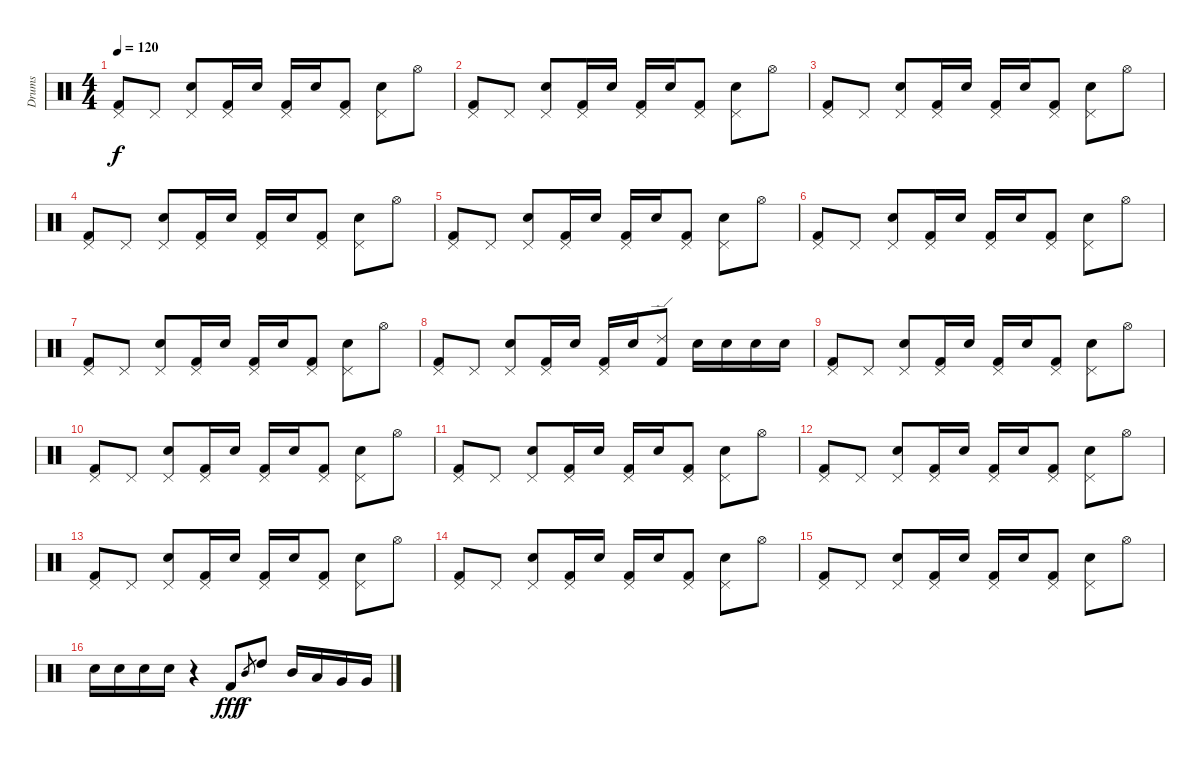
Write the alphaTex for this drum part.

\track ("Drums" "Drums") {instrument percussion}
\staff {score}
\articulation defaults
\ts (4 4)
\tempo 120
\clef neutral
\ks c
("Pedal Hi-Hat (hit)" "Kick (hit) 2").8{dy f} "Pedal Hi-Hat (hit)".8 ("Pedal Hi-Hat (hit)" "Electric Snare (hit)").8 ("Pedal Hi-Hat (hit)" "Kick (hit) 2").16 "Electric Snare (hit)".16 ("Pedal Hi-Hat (hit)" "Kick (hit) 2").16 "Electric Snare (hit)".16 ("Pedal Hi-Hat (hit)" "Kick (hit) 2").8 ("Pedal Hi-Hat (hit)" "Electric Snare (hit)").8 "Hi-Hat (open)".8 |
("Pedal Hi-Hat (hit)" "Kick (hit) 2").8 "Pedal Hi-Hat (hit)".8 ("Pedal Hi-Hat (hit)" "Electric Snare (hit)").8 ("Pedal Hi-Hat (hit)" "Kick (hit) 2").16 "Electric Snare (hit)".16 ("Pedal Hi-Hat (hit)" "Kick (hit) 2").16 "Electric Snare (hit)".16 ("Pedal Hi-Hat (hit)" "Kick (hit) 2").8 ("Pedal Hi-Hat (hit)" "Electric Snare (hit)").8 "Hi-Hat (open)".8 |
("Pedal Hi-Hat (hit)" "Kick (hit) 2").8 "Pedal Hi-Hat (hit)".8 ("Pedal Hi-Hat (hit)" "Electric Snare (hit)").8 ("Pedal Hi-Hat (hit)" "Kick (hit) 2").16 "Electric Snare (hit)".16 ("Pedal Hi-Hat (hit)" "Kick (hit) 2").16 "Electric Snare (hit)".16 ("Pedal Hi-Hat (hit)" "Kick (hit) 2").8 ("Pedal Hi-Hat (hit)" "Electric Snare (hit)").8 "Hi-Hat (open)".8 |
("Pedal Hi-Hat (hit)" "Kick (hit) 2").8 "Pedal Hi-Hat (hit)".8 ("Pedal Hi-Hat (hit)" "Electric Snare (hit)").8 ("Pedal Hi-Hat (hit)" "Kick (hit) 2").16 "Electric Snare (hit)".16 ("Pedal Hi-Hat (hit)" "Kick (hit) 2").16 "Electric Snare (hit)".16 ("Pedal Hi-Hat (hit)" "Kick (hit) 2").8 ("Pedal Hi-Hat (hit)" "Electric Snare (hit)").8 "Hi-Hat (open)".8 |
("Pedal Hi-Hat (hit)" "Kick (hit) 2").8 "Pedal Hi-Hat (hit)".8 ("Pedal Hi-Hat (hit)" "Electric Snare (hit)").8 ("Pedal Hi-Hat (hit)" "Kick (hit) 2").16 "Electric Snare (hit)".16 ("Pedal Hi-Hat (hit)" "Kick (hit) 2").16 "Electric Snare (hit)".16 ("Pedal Hi-Hat (hit)" "Kick (hit) 2").8 ("Pedal Hi-Hat (hit)" "Electric Snare (hit)").8 "Hi-Hat (open)".8 |
("Pedal Hi-Hat (hit)" "Kick (hit) 2").8 "Pedal Hi-Hat (hit)".8 ("Pedal Hi-Hat (hit)" "Electric Snare (hit)").8 ("Pedal Hi-Hat (hit)" "Kick (hit) 2").16 "Electric Snare (hit)".16 ("Pedal Hi-Hat (hit)" "Kick (hit) 2").16 "Electric Snare (hit)".16 ("Pedal Hi-Hat (hit)" "Kick (hit) 2").8 ("Pedal Hi-Hat (hit)" "Electric Snare (hit)").8 "Hi-Hat (open)".8 |
("Pedal Hi-Hat (hit)" "Kick (hit) 2").8 "Pedal Hi-Hat (hit)".8 ("Pedal Hi-Hat (hit)" "Electric Snare (hit)").8 ("Pedal Hi-Hat (hit)" "Kick (hit) 2").16 "Electric Snare (hit)".16 ("Pedal Hi-Hat (hit)" "Kick (hit) 2").16 "Electric Snare (hit)".16 ("Pedal Hi-Hat (hit)" "Kick (hit) 2").8 ("Pedal Hi-Hat (hit)" "Electric Snare (hit)").8 "Hi-Hat (open)".8 |
("Pedal Hi-Hat (hit)" "Kick (hit) 2").8 "Pedal Hi-Hat (hit)".8 ("Pedal Hi-Hat (hit)" "Electric Snare (hit)").8 ("Pedal Hi-Hat (hit)" "Kick (hit) 2").16 "Electric Snare (hit)".16 ("Pedal Hi-Hat (hit)" "Kick (hit) 2").16 "Electric Snare (hit)".16 ("Ride (edge) 2" "Kick (hit) 2").8 "Electric Snare (hit)".16 "Electric Snare (hit)".16 "Electric Snare (hit)".16 "Electric Snare (hit)".16 |
("Pedal Hi-Hat (hit)" "Kick (hit) 2").8 "Pedal Hi-Hat (hit)".8 ("Pedal Hi-Hat (hit)" "Electric Snare (hit)").8 ("Pedal Hi-Hat (hit)" "Kick (hit) 2").16 "Electric Snare (hit)".16 ("Pedal Hi-Hat (hit)" "Kick (hit) 2").16 "Electric Snare (hit)".16 ("Pedal Hi-Hat (hit)" "Kick (hit) 2").8 ("Pedal Hi-Hat (hit)" "Electric Snare (hit)").8 "Hi-Hat (open)".8 |
("Pedal Hi-Hat (hit)" "Kick (hit) 2").8 "Pedal Hi-Hat (hit)".8 ("Pedal Hi-Hat (hit)" "Electric Snare (hit)").8 ("Pedal Hi-Hat (hit)" "Kick (hit) 2").16 "Electric Snare (hit)".16 ("Pedal Hi-Hat (hit)" "Kick (hit) 2").16 "Electric Snare (hit)".16 ("Pedal Hi-Hat (hit)" "Kick (hit) 2").8 ("Pedal Hi-Hat (hit)" "Electric Snare (hit)").8 "Hi-Hat (open)".8 |
("Pedal Hi-Hat (hit)" "Kick (hit) 2").8 "Pedal Hi-Hat (hit)".8 ("Pedal Hi-Hat (hit)" "Electric Snare (hit)").8 ("Pedal Hi-Hat (hit)" "Kick (hit) 2").16 "Electric Snare (hit)".16 ("Pedal Hi-Hat (hit)" "Kick (hit) 2").16 "Electric Snare (hit)".16 ("Pedal Hi-Hat (hit)" "Kick (hit) 2").8 ("Pedal Hi-Hat (hit)" "Electric Snare (hit)").8 "Hi-Hat (open)".8 |
("Pedal Hi-Hat (hit)" "Kick (hit) 2").8 "Pedal Hi-Hat (hit)".8 ("Pedal Hi-Hat (hit)" "Electric Snare (hit)").8 ("Pedal Hi-Hat (hit)" "Kick (hit) 2").16 "Electric Snare (hit)".16 ("Pedal Hi-Hat (hit)" "Kick (hit) 2").16 "Electric Snare (hit)".16 ("Pedal Hi-Hat (hit)" "Kick (hit) 2").8 ("Pedal Hi-Hat (hit)" "Electric Snare (hit)").8 "Hi-Hat (open)".8 |
("Pedal Hi-Hat (hit)" "Kick (hit) 2").8 "Pedal Hi-Hat (hit)".8 ("Pedal Hi-Hat (hit)" "Electric Snare (hit)").8 ("Pedal Hi-Hat (hit)" "Kick (hit) 2").16 "Electric Snare (hit)".16 ("Pedal Hi-Hat (hit)" "Kick (hit) 2").16 "Electric Snare (hit)".16 ("Pedal Hi-Hat (hit)" "Kick (hit) 2").8 ("Pedal Hi-Hat (hit)" "Electric Snare (hit)").8 "Hi-Hat (open)".8 |
("Pedal Hi-Hat (hit)" "Kick (hit) 2").8 "Pedal Hi-Hat (hit)".8 ("Pedal Hi-Hat (hit)" "Electric Snare (hit)").8 ("Pedal Hi-Hat (hit)" "Kick (hit) 2").16 "Electric Snare (hit)".16 ("Pedal Hi-Hat (hit)" "Kick (hit) 2").16 "Electric Snare (hit)".16 ("Pedal Hi-Hat (hit)" "Kick (hit) 2").8 ("Pedal Hi-Hat (hit)" "Electric Snare (hit)").8 "Hi-Hat (open)".8 |
("Pedal Hi-Hat (hit)" "Kick (hit) 2").8 "Pedal Hi-Hat (hit)".8 ("Pedal Hi-Hat (hit)" "Electric Snare (hit)").8 ("Pedal Hi-Hat (hit)" "Kick (hit) 2").16 "Electric Snare (hit)".16 ("Pedal Hi-Hat (hit)" "Kick (hit) 2").16 "Electric Snare (hit)".16 ("Pedal Hi-Hat (hit)" "Kick (hit) 2").8 ("Pedal Hi-Hat (hit)" "Electric Snare (hit)").8 "Hi-Hat (open)".8 |
"Electric Snare (hit)".16 "Electric Snare (hit)".16 "Electric Snare (hit)".16 "Electric Snare (hit)".16 r.4 "Kick (hit) 2".8{dy fff} "Mid Tom (hit)".8{gr dy f} "High Tom (hit)".8 "Mid Tom (hit)".16 "Low Tom (hit)".16 "Very Low Tom (hit)".16 "Very Low Tom (hit)".16
